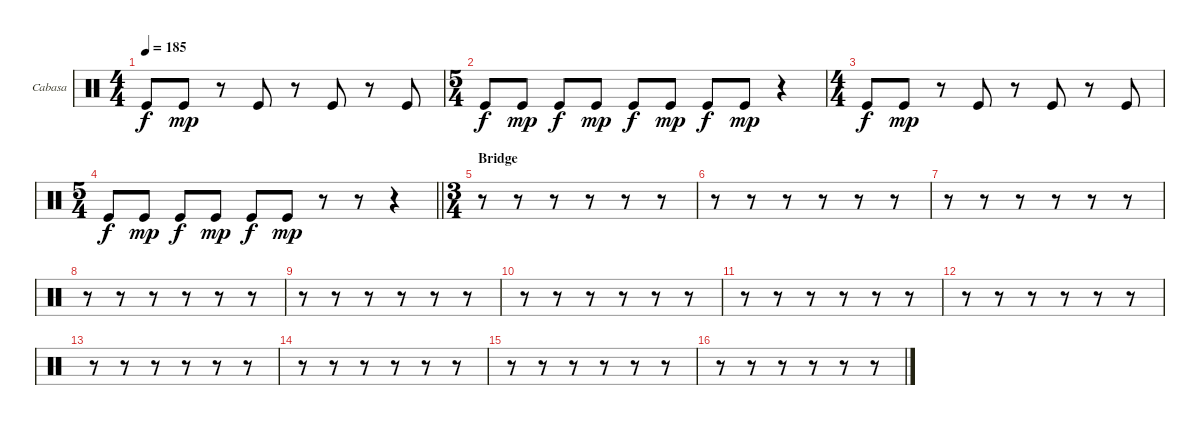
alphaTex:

\bracketExtendMode groupsimilarinstruments
\firstSystemTrackNameOrientation horizontal
\otherSystemsTrackNameOrientation horizontal
\track ("Cabasa" "Cabasa") {instrument percussion}
\staff {score}
\articulation defaults
\ts (4 4)
\beaming (8 2 2 2 2)
\tempo 185
\clef neutral
\ks c "Kick (hit)".8{dy f} "Kick (hit)".8{dy mp}
r.8 "Kick (hit)".8 r.8 "Kick (hit)".8 r.8 "Kick (hit)".8 |
\ts (5 4)
\beaming (8 2 2 2 4)
"Kick (hit)".8{dy f} "Kick (hit)".8{dy mp} "Kick (hit)".8{dy f} "Kick (hit)".8{dy mp} "Kick (hit)".8{dy f} "Kick (hit)".8{dy mp} "Kick (hit)".8{dy f} "Kick (hit)".8{dy mp} r.4 |
\ts (4 4)
\beaming (8 2 2 2 2)
"Kick (hit)".8{dy f} "Kick (hit)".8{dy mp} r.8 "Kick (hit)".8 r.8 "Kick (hit)".8 r.8 "Kick (hit)".8 |
\ts (5 4)
\beaming (8 2 2 2 4)
\barLineRight lightlight "Kick (hit)".8{dy f} "Kick (hit)".8{dy mp} "Kick (hit)".8{dy f} "Kick (hit)".8{dy mp} "Kick (hit)".8{dy f} "Kick (hit)".8{dy mp}
r.8 r.8 r.4 |
\ts (3 4)
\beaming (8 2 2 2)
\section ("" "Bridge")
r.8 r.8 r.8 r.8 r.8 r.8 |
r.8 r.8 r.8 r.8 r.8 r.8 |
r.8 r.8 r.8 r.8 r.8 r.8 |
r.8 r.8 r.8 r.8 r.8 r.8 |
r.8 r.8 r.8 r.8 r.8 r.8 |
r.8 r.8 r.8 r.8 r.8 r.8 |
r.8 r.8 r.8 r.8 r.8 r.8 |
r.8 r.8 r.8 r.8 r.8 r.8 |
r.8 r.8 r.8 r.8 r.8 r.8 |
r.8 r.8 r.8 r.8 r.8 r.8 |
r.8 r.8 r.8 r.8 r.8 r.8 |
r.8 r.8 r.8 r.8 r.8 r.8
